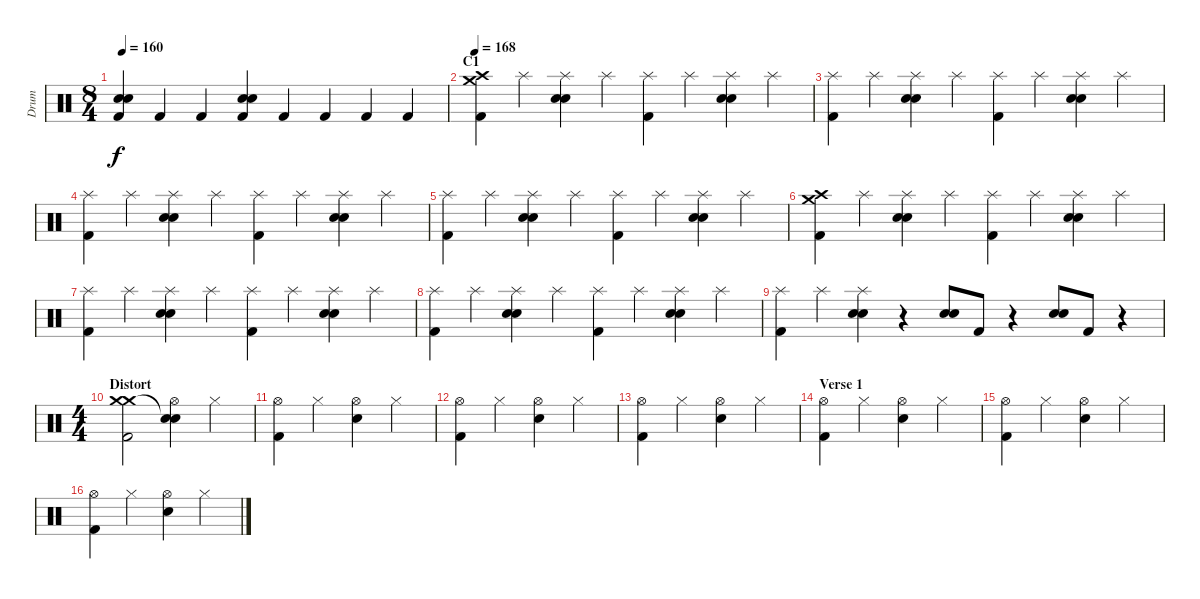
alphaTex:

\track ("Drum" "Drum") {instrument percussion}
\staff {score}
\articulation defaults
\ts (8 4)
\tempo 160
\clef neutral
\ks c
("Kick (hit) 2" "Electric Snare (hit)" "Electric Snare (hit)").4{dy f} "Kick (hit) 2".4 "Kick (hit) 2".4 ("Kick (hit) 2" "Electric Snare (hit)" "Electric Snare (hit)").4 "Kick (hit) 2".4 "Kick (hit) 2".4 "Kick (hit) 2".4 "Kick (hit) 2".4 |
\section ("" "C1")
\tempo 168
("Kick (hit) 2" "Crash high (hit)" "Crash medium (hit)").4 "Splash (hit)".4 ("Electric Snare (hit)" "Electric Snare (hit)" "Splash (hit)").4 "Splash (hit)".4 ("Kick (hit) 2" "Splash (hit)").4 "Splash (hit)".4 ("Electric Snare (hit)" "Electric Snare (hit)" "Splash (hit)").4 "Splash (hit)".4 |
("Kick (hit) 2" "Splash (hit)").4 "Splash (hit)".4 ("Electric Snare (hit)" "Electric Snare (hit)" "Splash (hit)").4 "Splash (hit)".4 ("Kick (hit) 2" "Splash (hit)").4 "Splash (hit)".4 ("Electric Snare (hit)" "Electric Snare (hit)" "Splash (hit)").4 "Splash (hit)".4 |
("Kick (hit) 2" "Splash (hit)").4 "Splash (hit)".4 ("Electric Snare (hit)" "Electric Snare (hit)" "Splash (hit)").4 "Splash (hit)".4 ("Kick (hit) 2" "Splash (hit)").4 "Splash (hit)".4 ("Electric Snare (hit)" "Electric Snare (hit)" "Splash (hit)").4 "Splash (hit)".4 |
("Kick (hit) 2" "Splash (hit)").4 "Splash (hit)".4 ("Electric Snare (hit)" "Electric Snare (hit)" "Splash (hit)").4 "Splash (hit)".4 ("Kick (hit) 2" "Splash (hit)").4 "Splash (hit)".4 ("Electric Snare (hit)" "Electric Snare (hit)" "Splash (hit)").4 "Splash (hit)".4 |
("Kick (hit) 2" "Crash high (hit)" "Crash medium (hit)").4 "Splash (hit)".4 ("Electric Snare (hit)" "Electric Snare (hit)" "Splash (hit)").4 "Splash (hit)".4 ("Kick (hit) 2" "Splash (hit)").4 "Splash (hit)".4 ("Electric Snare (hit)" "Electric Snare (hit)" "Splash (hit)").4 "Splash (hit)".4 |
("Kick (hit) 2" "Splash (hit)").4 "Splash (hit)".4 ("Electric Snare (hit)" "Electric Snare (hit)" "Splash (hit)").4 "Splash (hit)".4 ("Kick (hit) 2" "Splash (hit)").4 "Splash (hit)".4 ("Electric Snare (hit)" "Electric Snare (hit)" "Splash (hit)").4 "Splash (hit)".4 |
("Kick (hit) 2" "Splash (hit)").4 "Splash (hit)".4 ("Electric Snare (hit)" "Electric Snare (hit)" "Splash (hit)").4 "Splash (hit)".4 ("Kick (hit) 2" "Splash (hit)").4 "Splash (hit)".4 ("Electric Snare (hit)" "Electric Snare (hit)" "Splash (hit)").4 "Splash (hit)".4 |
("Kick (hit) 2" "Splash (hit)").4 "Splash (hit)".4 ("Electric Snare (hit)" "Electric Snare (hit)" "Splash (hit)").4 r.4 ("Electric Snare (hit)" "Electric Snare (hit)").8 "Kick (hit) 2".8 r.4 ("Electric Snare (hit)" "Electric Snare (hit)").8 "Kick (hit) 2".8 r.4 |
\ts (4 4)
\section ("" "Distort")
("Kick (hit) 2" "Crash medium (hit)" "Crash medium (hit)").2 ("Electric Snare (hit)" "Hi-Hat (open)" "Snare (hit)"{t}).4 "Hi-Hat (closed)".4 |
("Kick (hit) 2" "Hi-Hat (open)").4 "Hi-Hat (closed)".4 ("Electric Snare (hit)" "Hi-Hat (open)").4 "Hi-Hat (closed)".4 |
("Kick (hit) 2" "Hi-Hat (open)").4 "Hi-Hat (closed)".4 ("Electric Snare (hit)" "Hi-Hat (open)").4 "Hi-Hat (closed)".4 |
("Kick (hit) 2" "Hi-Hat (open)").4 "Hi-Hat (closed)".4 ("Electric Snare (hit)" "Hi-Hat (open)").4 "Hi-Hat (closed)".4 |
\section ("" "Verse 1")
("Kick (hit) 2" "Hi-Hat (open)").4 "Hi-Hat (closed)".4 ("Electric Snare (hit)" "Hi-Hat (open)").4 "Hi-Hat (closed)".4 |
("Kick (hit) 2" "Hi-Hat (open)").4 "Hi-Hat (closed)".4 ("Electric Snare (hit)" "Hi-Hat (open)").4 "Hi-Hat (closed)".4 |
("Kick (hit) 2" "Hi-Hat (open)").4 "Hi-Hat (closed)".4 ("Electric Snare (hit)" "Hi-Hat (open)").4 "Hi-Hat (closed)".4
